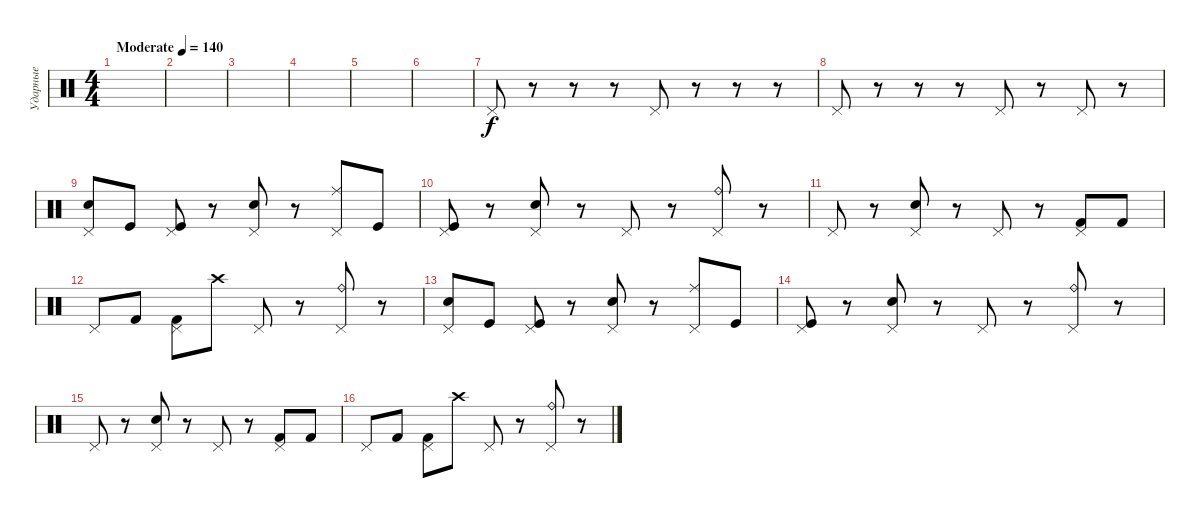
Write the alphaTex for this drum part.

\track ("Ударные" "Ударные") {instrument percussion bank 7}
\staff {score}
\articulation defaults
\ts (4 4)
\tempo (140 "Moderate")
\clef neutral
\ks c
|
|
|
|
|
|
"Pedal Hi-Hat (hit)".8 r.8 r.8 r.8 "Pedal Hi-Hat (hit)".8 r.8 r.8 r.8 |
"Pedal Hi-Hat (hit)".8 r.8 r.8 r.8 "Pedal Hi-Hat (hit)".8 r.8 "Pedal Hi-Hat (hit)".8 r.8 |
("Pedal Hi-Hat (hit)" "Snare (hit) 2").8 "Kick (hit)".8 ("Pedal Hi-Hat (hit)" "Kick (hit)").8 r.8 ("Pedal Hi-Hat (hit)" "Electric Snare (hit)").8 r.8 ("Pedal Hi-Hat (hit)" "Ride (middle)").8 "Kick (hit)".8 |
("Pedal Hi-Hat (hit)" "Kick (hit)").8 r.8 ("Pedal Hi-Hat (hit)" "Electric Snare (hit)").8 r.8 "Pedal Hi-Hat (hit)".8 r.8 ("Pedal Hi-Hat (hit)" "Ride (bell)").8 r.8 |
"Pedal Hi-Hat (hit)".8 r.8 ("Pedal Hi-Hat (hit)" "Electric Snare (hit)").8 r.8 "Pedal Hi-Hat (hit)".8 r.8 ("Pedal Hi-Hat (hit)" "Kick (hit) 2").8 "Kick (hit) 2".8 |
"Pedal Hi-Hat (hit)".8 "Kick (hit) 2".8 ("Pedal Hi-Hat (hit)" "Kick (hit) 2").8 "Crash high (hit)".8 "Pedal Hi-Hat (hit)".8 r.8 ("Pedal Hi-Hat (hit)" "Ride (bell)").8 r.8 |
("Pedal Hi-Hat (hit)" "Snare (hit) 2").8 "Kick (hit)".8 ("Pedal Hi-Hat (hit)" "Kick (hit)").8 r.8 ("Pedal Hi-Hat (hit)" "Electric Snare (hit)").8 r.8 ("Pedal Hi-Hat (hit)" "Ride (middle)").8 "Kick (hit)".8 |
("Pedal Hi-Hat (hit)" "Kick (hit)").8 r.8 ("Pedal Hi-Hat (hit)" "Electric Snare (hit)").8 r.8 "Pedal Hi-Hat (hit)".8 r.8 ("Pedal Hi-Hat (hit)" "Ride (bell)").8 r.8 |
"Pedal Hi-Hat (hit)".8 r.8 ("Pedal Hi-Hat (hit)" "Electric Snare (hit)").8 r.8 "Pedal Hi-Hat (hit)".8 r.8 ("Pedal Hi-Hat (hit)" "Kick (hit) 2").8 "Kick (hit) 2".8 |
"Pedal Hi-Hat (hit)".8 "Kick (hit) 2".8 ("Pedal Hi-Hat (hit)" "Kick (hit) 2").8 "Crash high (hit)".8 "Pedal Hi-Hat (hit)".8 r.8 ("Pedal Hi-Hat (hit)" "Ride (bell)").8 r.8
